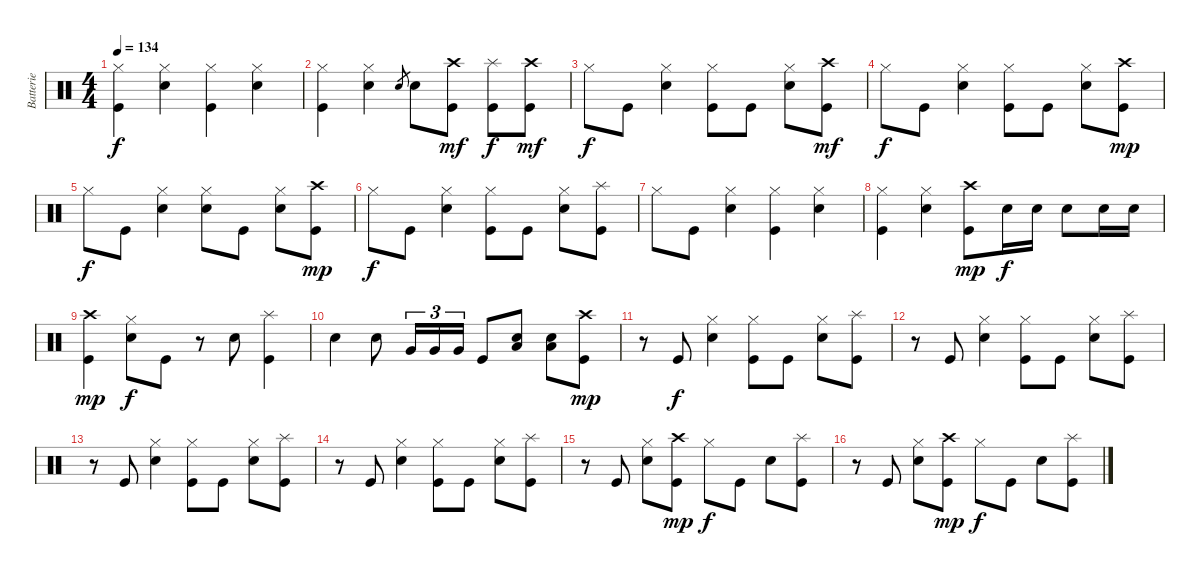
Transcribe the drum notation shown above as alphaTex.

\track ("Batterie" "Batterie") {instrument percussion}
\staff {score}
\articulation defaults
\ts (4 4)
\tempo 134
\clef neutral
\ks c
("Hi-Hat (closed)" "Kick (hit)").4{dy f} ("Hi-Hat (closed)" "Snare (hit) 2").4 ("Hi-Hat (closed)" "Kick (hit)").4 ("Hi-Hat (closed)" "Snare (hit) 2").4 |
("Hi-Hat (closed)" "Kick (hit)").4 ("Hi-Hat (closed)" "Snare (hit) 2").4 "Snare (hit) 2".8{gr} "Snare (hit) 2".8 ("Crash high (hit)" "Kick (hit)").8{dy mf} ("Splash (hit)" "Kick (hit)").8{dy f} ("Crash high (hit)" "Kick (hit)").8{dy mf} |
"Hi-Hat (closed)".8{dy f} "Kick (hit)".8 ("Hi-Hat (closed)" "Snare (hit) 2").4 ("Hi-Hat (closed)" "Kick (hit)").8 "Kick (hit)".8 ("Hi-Hat (closed)" "Snare (hit) 2").8 ("Crash high (hit)" "Kick (hit)").8{dy mf} |
"Hi-Hat (closed)".8{dy f} "Kick (hit)".8 ("Hi-Hat (closed)" "Snare (hit) 2").4 ("Hi-Hat (closed)" "Kick (hit)").8 "Kick (hit)".8 ("Hi-Hat (closed)" "Snare (hit) 2").8 ("Crash high (hit)" "Kick (hit)").8{dy mp} |
"Hi-Hat (closed)".8{dy f} "Kick (hit)".8 ("Hi-Hat (closed)" "Snare (hit) 2").4 ("Hi-Hat (closed)" "Snare (hit) 2").8 "Kick (hit)".8 ("Hi-Hat (closed)" "Snare (hit) 2").8 ("Crash high (hit)" "Kick (hit)").8{dy mp} |
"Hi-Hat (closed)".8{dy f} "Kick (hit)".8 ("Hi-Hat (closed)" "Snare (hit) 2").4 ("Hi-Hat (closed)" "Kick (hit)").8 "Kick (hit)".8 ("Hi-Hat (closed)" "Snare (hit) 2").8 ("Splash (hit)" "Kick (hit)").8 |
"Hi-Hat (closed)".8 "Kick (hit)".8 ("Hi-Hat (closed)" "Snare (hit) 2").4 ("Hi-Hat (closed)" "Kick (hit)").4 ("Hi-Hat (closed)" "Snare (hit) 2").4 |
("Hi-Hat (closed)" "Kick (hit)").4 ("Hi-Hat (closed)" "Snare (hit) 2").4 ("Crash high (hit)" "Kick (hit)").8{dy mp} "Snare (hit) 2".16{dy f} "Snare (hit) 2".16 "Snare (hit) 2".8 "Snare (hit) 2".16 "Snare (hit) 2".16 |
("Crash high (hit)" "Kick (hit)").4{dy mp} ("Hi-Hat (closed)" "Snare (hit) 2").8{dy f} "Kick (hit)".8 r.8 "Snare (hit) 2".8 ("Splash (hit)" "Kick (hit)").4 |
"Snare (hit) 2".4 "Snare (hit) 2".8 "Very Low Tom (hit)".16{tu (3 2)} "Very Low Tom (hit)".16{tu (3 2)} "Very Low Tom (hit)".16{tu (3 2)} "Kick (hit)".8 ("Snare (hit) 2" "Low Floor Tom (hit)").8 ("Snare (hit) 2" "Low Floor Tom (hit)").8 ("Crash high (hit)" "Kick (hit)").8{dy mp} |
r.8 "Kick (hit)".8{dy f} ("Hi-Hat (closed)" "Snare (hit) 2").4 ("Hi-Hat (closed)" "Kick (hit)").8 "Kick (hit)".8 ("Hi-Hat (closed)" "Snare (hit) 2").8 ("Splash (hit)" "Kick (hit)").8 |
r.8 "Kick (hit)".8 ("Hi-Hat (closed)" "Snare (hit) 2").4 ("Hi-Hat (closed)" "Kick (hit)").8 "Kick (hit)".8 ("Hi-Hat (closed)" "Snare (hit) 2").8 ("Splash (hit)" "Kick (hit)").8 |
r.8 "Kick (hit)".8 ("Hi-Hat (closed)" "Snare (hit) 2").4 ("Hi-Hat (closed)" "Kick (hit)").8 "Kick (hit)".8 ("Hi-Hat (closed)" "Snare (hit) 2").8 ("Splash (hit)" "Kick (hit)").8 |
r.8 "Kick (hit)".8 ("Hi-Hat (closed)" "Snare (hit) 2").4 ("Hi-Hat (closed)" "Kick (hit)").8 "Kick (hit)".8 ("Hi-Hat (closed)" "Snare (hit) 2").8 ("Splash (hit)" "Kick (hit)").8 |
r.8 "Kick (hit)".8 ("Hi-Hat (closed)" "Snare (hit) 2").8 ("Crash high (hit)" "Kick (hit)").8{dy mp} "Hi-Hat (closed)".8{dy f} "Kick (hit)".8 "Snare (hit) 2".8 ("Splash (hit)" "Kick (hit)").8 |
r.8 "Kick (hit)".8 ("Hi-Hat (closed)" "Snare (hit) 2").8 ("Crash high (hit)" "Kick (hit)").8{dy mp} "Hi-Hat (closed)".8{dy f} "Kick (hit)".8 "Snare (hit) 2".8 ("Splash (hit)" "Kick (hit)").8
